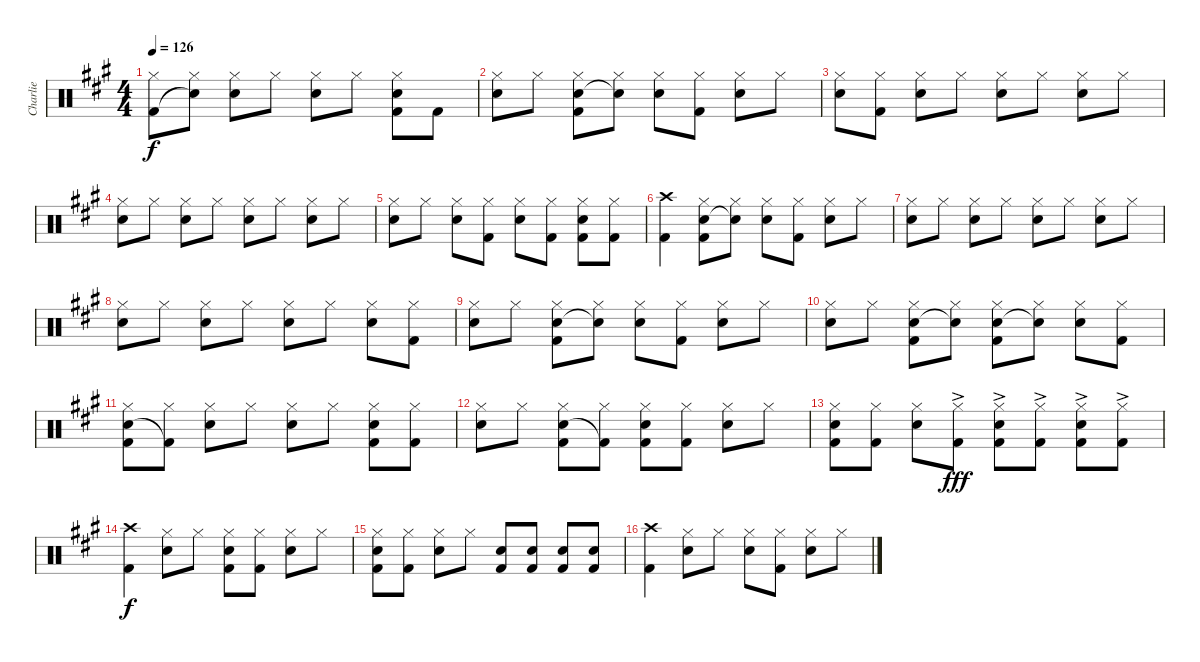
\track ("Charlie" "Charlie") {instrument percussion}
\staff {score}
\articulation defaults
\ts (4 4)
\tempo 126
\clef neutral
\ks a
("Hi-Hat (closed)" "Kick (hit) 2").8{dy f} ("Hi-Hat (closed)" "Snare (hit)"{t}).8 ("Hi-Hat (closed)" "Snare (hit) 2").8 "Hi-Hat (closed)".8 ("Hi-Hat (closed)" "Snare (hit) 2").8 "Hi-Hat (closed)".8 ("Hi-Hat (closed)" "Snare (hit) 2" "Kick (hit) 2").8 "Kick (hit) 2".8 |
("Hi-Hat (closed)" "Snare (hit) 2").8 "Hi-Hat (closed)".8 ("Hi-Hat (closed)" "Snare (hit) 2" "Kick (hit) 2").8 ("Hi-Hat (closed)" "Snare (hit)"{t}).8 ("Hi-Hat (closed)" "Snare (hit) 2").8 ("Hi-Hat (closed)" "Kick (hit) 2").8 ("Hi-Hat (closed)" "Snare (hit) 2").8 "Hi-Hat (closed)".8 |
("Hi-Hat (closed)" "Snare (hit) 2").8 ("Hi-Hat (closed)" "Kick (hit) 2").8 ("Hi-Hat (closed)" "Snare (hit) 2").8 "Hi-Hat (closed)".8 ("Hi-Hat (closed)" "Snare (hit) 2").8 "Hi-Hat (closed)".8 ("Hi-Hat (closed)" "Snare (hit) 2").8 "Hi-Hat (closed)".8 |
("Hi-Hat (closed)" "Snare (hit) 2").8 "Hi-Hat (closed)".8 ("Hi-Hat (closed)" "Snare (hit) 2").8 "Hi-Hat (closed)".8 ("Hi-Hat (closed)" "Snare (hit) 2").8 "Hi-Hat (closed)".8 ("Hi-Hat (closed)" "Snare (hit) 2").8 "Hi-Hat (closed)".8 |
("Hi-Hat (closed)" "Snare (hit) 2").8 "Hi-Hat (closed)".8 ("Hi-Hat (closed)" "Snare (hit) 2").8 ("Hi-Hat (closed)" "Kick (hit) 2").8 ("Hi-Hat (closed)" "Snare (hit) 2").8 ("Hi-Hat (closed)" "Kick (hit) 2").8 ("Hi-Hat (closed)" "Snare (hit) 2" "Kick (hit) 2").8 ("Hi-Hat (closed)" "Kick (hit) 2").8 |
("Crash high (hit)" "Kick (hit) 2").4 ("Hi-Hat (closed)" "Snare (hit) 2" "Kick (hit) 2").8 ("Hi-Hat (closed)" "Snare (hit)"{t}).8 ("Hi-Hat (closed)" "Snare (hit) 2").8 ("Hi-Hat (closed)" "Kick (hit) 2").8 ("Hi-Hat (closed)" "Snare (hit) 2").8 "Hi-Hat (closed)".8 |
("Hi-Hat (closed)" "Snare (hit) 2").8 "Hi-Hat (closed)".8 ("Hi-Hat (closed)" "Snare (hit) 2").8 "Hi-Hat (closed)".8 ("Hi-Hat (closed)" "Snare (hit) 2").8 "Hi-Hat (closed)".8 ("Hi-Hat (closed)" "Snare (hit) 2").8 "Hi-Hat (closed)".8 |
("Hi-Hat (closed)" "Snare (hit) 2").8 "Hi-Hat (closed)".8 ("Hi-Hat (closed)" "Snare (hit) 2").8 "Hi-Hat (closed)".8 ("Hi-Hat (closed)" "Snare (hit) 2").8 "Hi-Hat (closed)".8 ("Hi-Hat (closed)" "Snare (hit) 2").8 ("Hi-Hat (closed)" "Kick (hit) 2").8 |
("Hi-Hat (closed)" "Snare (hit) 2").8 "Hi-Hat (closed)".8 ("Hi-Hat (closed)" "Snare (hit) 2" "Kick (hit) 2").8 ("Hi-Hat (closed)" "Snare (hit)"{t}).8 ("Hi-Hat (closed)" "Snare (hit) 2").8 ("Hi-Hat (closed)" "Kick (hit) 2").8 ("Hi-Hat (closed)" "Snare (hit) 2").8 "Hi-Hat (closed)".8 |
("Hi-Hat (closed)" "Snare (hit) 2").8 "Hi-Hat (closed)".8 ("Hi-Hat (closed)" "Snare (hit) 2" "Kick (hit) 2").8 ("Hi-Hat (closed)" "Snare (hit)"{t}).8 ("Hi-Hat (closed)" "Snare (hit) 2" "Kick (hit) 2").8 ("Hi-Hat (closed)" "Snare (hit)"{t}).8 ("Hi-Hat (closed)" "Snare (hit) 2").8 ("Hi-Hat (closed)" "Kick (hit) 2").8 |
("Hi-Hat (closed)" "Snare (hit) 2" "Kick (hit) 2").8 ("Hi-Hat (closed)" "Kick (hit) 2"{t}).8 ("Hi-Hat (closed)" "Snare (hit) 2").8 "Hi-Hat (closed)".8 ("Hi-Hat (closed)" "Snare (hit) 2").8 "Hi-Hat (closed)".8 ("Hi-Hat (closed)" "Snare (hit) 2" "Kick (hit) 2").8 ("Hi-Hat (closed)" "Kick (hit) 2").8 |
("Hi-Hat (closed)" "Snare (hit) 2").8 "Hi-Hat (closed)".8 ("Hi-Hat (closed)" "Snare (hit) 2" "Kick (hit) 2").8 ("Hi-Hat (closed)" "Kick (hit) 2"{t}).8 ("Hi-Hat (closed)" "Snare (hit) 2" "Kick (hit) 2").8 ("Hi-Hat (closed)" "Kick (hit) 2").8 ("Hi-Hat (closed)" "Snare (hit) 2").8 "Hi-Hat (closed)".8 |
("Hi-Hat (closed)" "Snare (hit) 2" "Kick (hit) 2").8 ("Hi-Hat (closed)" "Kick (hit) 2").8 ("Hi-Hat (closed)" "Snare (hit) 2").8 ("Hi-Hat (closed)" "Kick (hit) 2"{ac}).8{dy fff} ("Hi-Hat (closed)" "Snare (hit) 2" "Kick (hit) 2"{ac}).8 ("Hi-Hat (closed)" "Kick (hit) 2"{ac}).8 ("Hi-Hat (closed)" "Snare (hit) 2" "Kick (hit) 2"{ac}).8 ("Hi-Hat (closed)" "Kick (hit) 2"{ac}).8 |
("Crash high (hit)" "Kick (hit) 2").4{dy f} ("Hi-Hat (closed)" "Snare (hit) 2").8 "Hi-Hat (closed)".8 ("Hi-Hat (closed)" "Snare (hit) 2" "Kick (hit) 2").8 ("Hi-Hat (closed)" "Kick (hit) 2").8 ("Hi-Hat (closed)" "Snare (hit) 2").8 "Hi-Hat (closed)".8 |
("Hi-Hat (closed)" "Snare (hit) 2" "Kick (hit) 2").8 ("Hi-Hat (closed)" "Kick (hit) 2").8 ("Hi-Hat (closed)" "Snare (hit) 2").8 "Hi-Hat (closed)".8 ("Snare (hit) 2" "Kick (hit) 2").8 ("Snare (hit) 2" "Kick (hit) 2").8 ("Snare (hit) 2" "Kick (hit) 2").8 ("Snare (hit) 2" "Kick (hit) 2").8 |
("Crash high (hit)" "Kick (hit) 2").4 ("Hi-Hat (closed)" "Snare (hit) 2").8 "Hi-Hat (closed)".8 ("Hi-Hat (closed)" "Snare (hit) 2").8 ("Hi-Hat (closed)" "Kick (hit) 2").8 ("Hi-Hat (closed)" "Snare (hit) 2").8 "Hi-Hat (closed)".8
